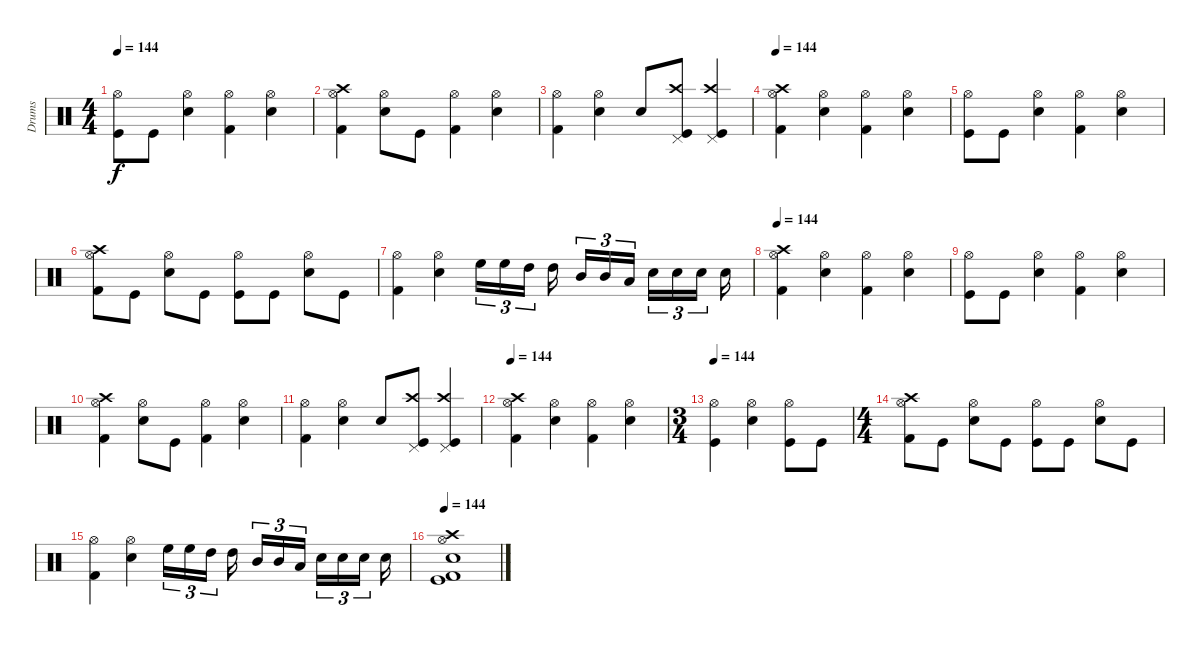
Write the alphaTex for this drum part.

\track ("Drums" "Drums") {instrument percussion}
\staff {score}
\articulation defaults
\ts (4 4)
\tempo 144
\clef neutral
\ks c
("Hi-Hat (open)" "Kick (hit)").8{dy f} "Kick (hit)".8 ("Hi-Hat (open)" "Snare (hit) 2").4 ("Hi-Hat (open)" "Kick (hit) 2").4 ("Hi-Hat (open)" "Snare (hit) 2").4 |
("Hi-Hat (open)" "Kick (hit) 2" "Crash high (hit)").4 ("Hi-Hat (open)" "Snare (hit) 2").8 "Kick (hit)".8 ("Hi-Hat (open)" "Kick (hit) 2").4 ("Hi-Hat (open)" "Snare (hit) 2").4 |
("Hi-Hat (open)" "Kick (hit) 2").4 ("Hi-Hat (open)" "Snare (hit) 2").4 "Snare (hit) 2".8 ("Pedal Hi-Hat (hit)" "Crash high (hit)" "Kick (hit)").8 ("Pedal Hi-Hat (hit)" "Crash high (hit)" "Kick (hit)").4 |
\tempo 144
("Hi-Hat (open)" "Kick (hit) 2" "Crash high (hit)").4 ("Hi-Hat (open)" "Snare (hit) 2").4 ("Hi-Hat (open)" "Kick (hit) 2").4 ("Hi-Hat (open)" "Snare (hit) 2").4 |
("Hi-Hat (open)" "Kick (hit)").8 "Kick (hit)".8 ("Hi-Hat (open)" "Snare (hit) 2").4 ("Hi-Hat (open)" "Kick (hit) 2").4 ("Hi-Hat (open)" "Snare (hit) 2").4 |
("Hi-Hat (open)" "Kick (hit) 2" "Crash high (hit)").8 "Kick (hit)".8 ("Hi-Hat (open)" "Snare (hit) 2").8 "Kick (hit)".8 ("Hi-Hat (open)" "Kick (hit)").8 "Kick (hit)".8 ("Hi-Hat (open)" "Snare (hit) 2").8 "Kick (hit)".8 |
("Hi-Hat (open)" "Kick (hit) 2").4 ("Hi-Hat (open)" "Snare (hit) 2").4 "High Floor Tom (hit)".16{tu (3 2)} "High Floor Tom (hit)".16{tu (3 2)} "High Tom (hit)".16{tu (3 2) beam splitsecondary} "High Tom (hit)".16{beam splitsecondary} "Mid Tom (hit)".16{tu (3 2)} "Mid Tom (hit)".16{tu (3 2)} "Low Tom (hit)".16{tu (3 2) beam splitsecondary} "Snare (hit) 2".16{tu (3 2)} "Snare (hit) 2".16{tu (3 2)} "Snare (hit) 2".16{tu (3 2) beam splitsecondary} "Snare (hit) 2".16 |
\tempo 144
("Hi-Hat (open)" "Kick (hit) 2" "Crash high (hit)").4 ("Hi-Hat (open)" "Snare (hit) 2").4 ("Hi-Hat (open)" "Kick (hit) 2").4 ("Hi-Hat (open)" "Snare (hit) 2").4 |
("Hi-Hat (open)" "Kick (hit)").8 "Kick (hit)".8 ("Hi-Hat (open)" "Snare (hit) 2").4 ("Hi-Hat (open)" "Kick (hit) 2").4 ("Hi-Hat (open)" "Snare (hit) 2").4 |
("Hi-Hat (open)" "Kick (hit) 2" "Crash high (hit)").4 ("Hi-Hat (open)" "Snare (hit) 2").8 "Kick (hit)".8 ("Hi-Hat (open)" "Kick (hit) 2").4 ("Hi-Hat (open)" "Snare (hit) 2").4 |
("Hi-Hat (open)" "Kick (hit) 2").4 ("Hi-Hat (open)" "Snare (hit) 2").4 "Snare (hit) 2".8 ("Pedal Hi-Hat (hit)" "Crash high (hit)" "Kick (hit)").8 ("Pedal Hi-Hat (hit)" "Crash high (hit)" "Kick (hit)").4 |
\tempo 144
("Hi-Hat (open)" "Kick (hit) 2" "Crash high (hit)").4 ("Hi-Hat (open)" "Snare (hit) 2").4 ("Hi-Hat (open)" "Kick (hit) 2").4 ("Hi-Hat (open)" "Snare (hit) 2").4 |
\ts (3 4)
\tempo 144
("Hi-Hat (open)" "Kick (hit)").4 ("Hi-Hat (open)" "Snare (hit) 2").4 ("Hi-Hat (open)" "Kick (hit)").8 "Kick (hit)".8 |
\ts (4 4)
("Hi-Hat (open)" "Kick (hit) 2" "Crash high (hit)").8 "Kick (hit)".8 ("Hi-Hat (open)" "Snare (hit) 2").8 "Kick (hit)".8 ("Hi-Hat (open)" "Kick (hit)").8 "Kick (hit)".8 ("Hi-Hat (open)" "Snare (hit) 2").8 "Kick (hit)".8 |
("Hi-Hat (open)" "Kick (hit) 2").4 ("Hi-Hat (open)" "Snare (hit) 2").4 "High Floor Tom (hit)".16{tu (3 2)} "High Floor Tom (hit)".16{tu (3 2)} "High Tom (hit)".16{tu (3 2) beam splitsecondary} "High Tom (hit)".16{beam splitsecondary} "Mid Tom (hit)".16{tu (3 2)} "Mid Tom (hit)".16{tu (3 2)} "Low Tom (hit)".16{tu (3 2) beam splitsecondary} "Snare (hit) 2".16{tu (3 2)} "Snare (hit) 2".16{tu (3 2)} "Snare (hit) 2".16{tu (3 2) beam splitsecondary} "Snare (hit) 2".16 |
\tempo 144
("Crash high (hit)" "Kick (hit) 2" "Kick (hit)" "Snare (hit) 2" "Hi-Hat (open)").1
